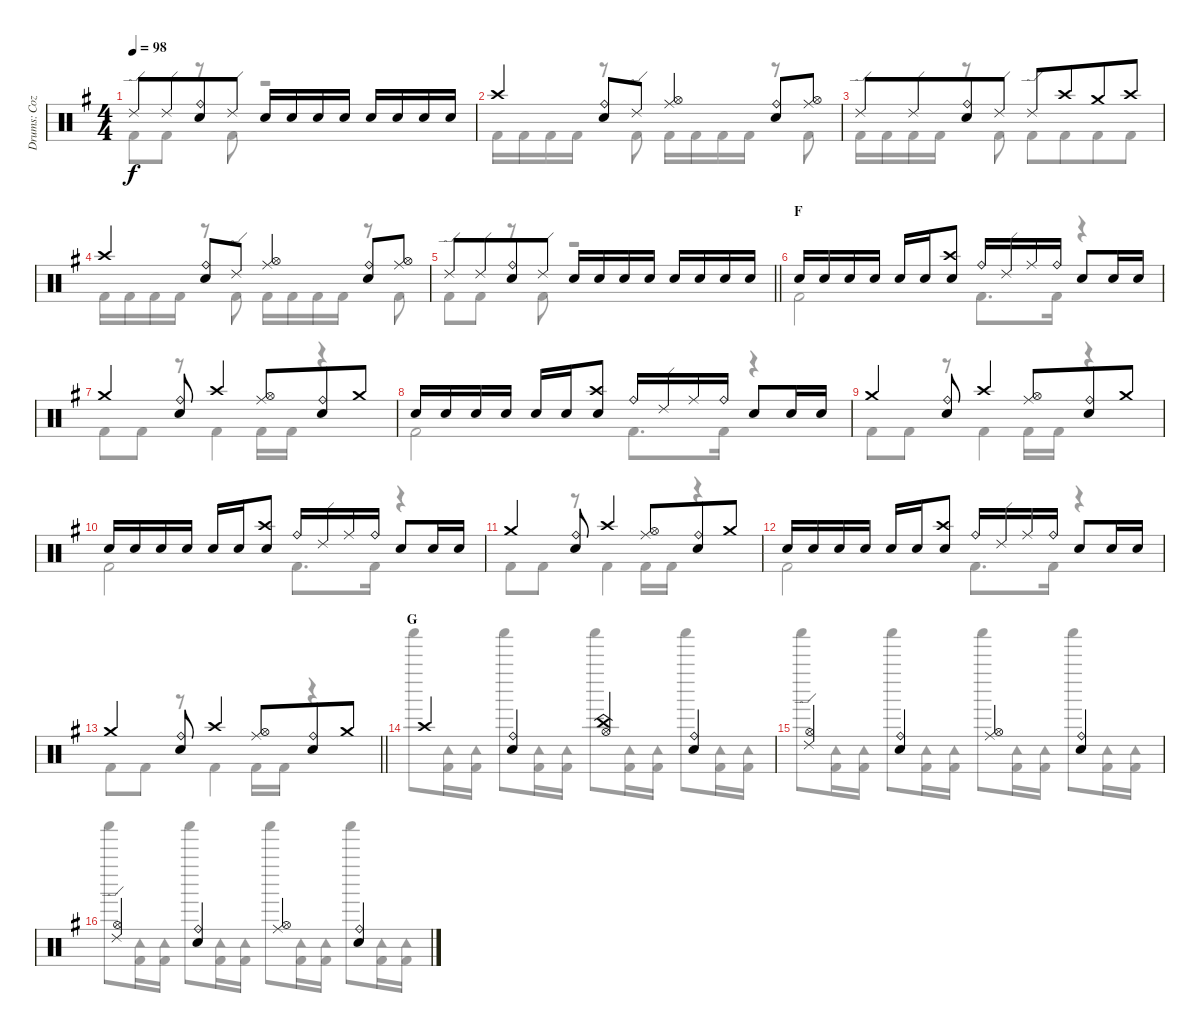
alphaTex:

\track ("Drums: Cozy" "Drums: Coz") {instrument percussion}
\staff {score}
\articulation defaults
\voice
\ts (4 4)
\tempo 98
\clef neutral
\ks g "Ride (edge) 2".8{dy f} "Ride (edge) 2".8{beam merge}
("Ride (bell)" "Snare (hit) 2").8 "Ride (edge) 2".8 "Snare (hit) 2".16 "Snare (hit) 2".16{beam merge} "Snare (hit) 2".16 "Snare (hit) 2".16 "Snare (hit) 2".16 "Snare (hit) 2".16{beam merge} "Snare (hit) 2".16 "Snare (hit) 2".16 |
"Crash high (hit)".4 ("Ride (bell)" "Snare (hit) 2").8 "Ride (edge) 2".8 ("Ride (middle)" "Hi-Hat (open)").4 ("Ride (bell)" "Snare (hit) 2").8 ("Ride (middle)" "Hi-Hat (open)").8 |
"Ride (edge) 2".8 "Ride (edge) 2".8{beam merge} ("Ride (bell)" "Snare (hit) 2").8 "Ride (edge) 2".8 "Ride (edge) 2".8 "Crash high (hit)".8{beam merge} "Crash medium (hit)".8 "Crash high (hit)".8 |
"Crash high (hit)".4 ("Ride (bell)" "Snare (hit) 2").8 "Ride (edge) 2".8 ("Ride (middle)" "Hi-Hat (open)").4 ("Ride (bell)" "Snare (hit) 2").8 ("Ride (middle)" "Hi-Hat (open)").8 |
\barLineRight lightlight "Ride (edge) 2".8 "Ride (edge) 2".8{beam merge}
("Ride (bell)" "Snare (hit) 2").8 "Ride (edge) 2".8 "Snare (hit) 2".16 "Snare (hit) 2".16{beam merge} "Snare (hit) 2".16 "Snare (hit) 2".16 "Snare (hit) 2".16 "Snare (hit) 2".16{beam merge} "Snare (hit) 2".16 "Snare (hit) 2".16 |
\section ("" "F")
"Snare (hit) 2".16 "Snare (hit) 2".16 "Snare (hit) 2".16 "Snare (hit) 2".16 "Snare (hit) 2".16 "Snare (hit) 2".16 ("Crash high (hit)" "Snare (hit) 2").8 "Ride (bell)".16 "Ride (edge) 2".16 "Ride (middle)".16 "Ride (bell)".16 "Snare (hit) 2".8 "Snare (hit) 2".16 "Snare (hit) 2".16 |
"Crash medium (hit)".4 ("Ride (bell)" "Snare (hit) 2").8 "Crash high (hit)".4 ("Ride (middle)" "Hi-Hat (open)").8{beam merge} ("Ride (bell)" "Snare (hit) 2").8 "Crash medium (hit)".8 |
"Snare (hit) 2".16 "Snare (hit) 2".16 "Snare (hit) 2".16 "Snare (hit) 2".16 "Snare (hit) 2".16 "Snare (hit) 2".16 ("Crash high (hit)" "Snare (hit) 2").8 "Ride (bell)".16 "Ride (edge) 2".16 "Ride (middle)".16 "Ride (bell)".16 "Snare (hit) 2".8 "Snare (hit) 2".16 "Snare (hit) 2".16 |
"Crash medium (hit)".4 ("Ride (bell)" "Snare (hit) 2").8 "Crash high (hit)".4 ("Ride (middle)" "Hi-Hat (open)").8{beam merge} ("Ride (bell)" "Snare (hit) 2").8 "Crash medium (hit)".8 |
"Snare (hit) 2".16 "Snare (hit) 2".16 "Snare (hit) 2".16 "Snare (hit) 2".16 "Snare (hit) 2".16 "Snare (hit) 2".16 ("Crash high (hit)" "Snare (hit) 2").8 "Ride (bell)".16 "Ride (edge) 2".16 "Ride (middle)".16 "Ride (bell)".16 "Snare (hit) 2".8 "Snare (hit) 2".16 "Snare (hit) 2".16 |
"Crash medium (hit)".4 ("Ride (bell)" "Snare (hit) 2").8 "Crash high (hit)".4 ("Ride (middle)" "Hi-Hat (open)").8{beam merge} ("Ride (bell)" "Snare (hit) 2").8 "Crash medium (hit)".8 |
"Snare (hit) 2".16 "Snare (hit) 2".16 "Snare (hit) 2".16 "Snare (hit) 2".16 "Snare (hit) 2".16 "Snare (hit) 2".16 ("Crash high (hit)" "Snare (hit) 2").8 "Ride (bell)".16 "Ride (edge) 2".16 "Ride (middle)".16 "Ride (bell)".16 "Snare (hit) 2".8 "Snare (hit) 2".16 "Snare (hit) 2".16 |
\barLineRight lightlight "Crash medium (hit)".4
("Ride (bell)" "Snare (hit) 2").8 "Crash high (hit)".4 ("Ride (middle)" "Hi-Hat (open)").8{beam merge} ("Ride (bell)" "Snare (hit) 2").8 "Crash medium (hit)".8 |
\section ("" "G")
"Crash high (hit)".4 ("Ride (bell)" "Snare (hit) 2").4 ("China (hit)" "Hi-Hat (open)").4 ("Ride (bell)" "Snare (hit) 2").4 |
("Ride (edge) 2" "Hi-Hat (open)").4 ("Ride (bell)" "Snare (hit) 2").4 ("Ride (middle)" "Hi-Hat (open)").4 ("Ride (bell)" "Snare (hit) 2").4 |
("Ride (edge) 2" "Hi-Hat (open)").4 ("Ride (bell)" "Snare (hit) 2").4 ("Ride (middle)" "Hi-Hat (open)").4 ("Ride (bell)" "Snare (hit) 2").4
\voice
\clef neutral
\ottava regular
\simile none
\ks g "Kick (hit) 2".8{dy f} "Kick (hit) 2".8
r.8 "Kick (hit) 2".8 r.2 |
"Kick (hit) 2".16 "Kick (hit) 2".16 "Kick (hit) 2".16 "Kick (hit) 2".16 r.8 "Kick (hit) 2".8 "Kick (hit) 2".16 "Kick (hit) 2".16 "Kick (hit) 2".16 "Kick (hit) 2".16 r.8 "Kick (hit) 2".8 |
"Kick (hit) 2".16 "Kick (hit) 2".16 "Kick (hit) 2".16 "Kick (hit) 2".16 r.8{beam merge} "Kick (hit) 2".8 "Kick (hit) 2".8 "Kick (hit) 2".8{beam merge} "Kick (hit) 2".8 "Kick (hit) 2".8 |
"Kick (hit) 2".16 "Kick (hit) 2".16 "Kick (hit) 2".16 "Kick (hit) 2".16 r.8 "Kick (hit) 2".8 "Kick (hit) 2".16 "Kick (hit) 2".16 "Kick (hit) 2".16 "Kick (hit) 2".16 r.8 "Kick (hit) 2".8 |
\barLineRight lightlight "Kick (hit) 2".8 "Kick (hit) 2".8
r.8 "Kick (hit) 2".8 r.2 |
"Kick (hit) 2".2 "Kick (hit) 2".8{d} "Kick (hit) 2".16 r.4 |
"Kick (hit) 2".8 "Kick (hit) 2".8 r.8 "Kick (hit) 2".4 "Kick (hit) 2".16 "Kick (hit) 2".16 r.4 |
"Kick (hit) 2".2 "Kick (hit) 2".8{d} "Kick (hit) 2".16 r.4 |
"Kick (hit) 2".8 "Kick (hit) 2".8 r.8 "Kick (hit) 2".4 "Kick (hit) 2".16 "Kick (hit) 2".16 r.4 |
"Kick (hit) 2".2 "Kick (hit) 2".8{d} "Kick (hit) 2".16 r.4 |
"Kick (hit) 2".8 "Kick (hit) 2".8 r.8 "Kick (hit) 2".4 "Kick (hit) 2".16 "Kick (hit) 2".16 r.4 |
"Kick (hit) 2".2 "Kick (hit) 2".8{d} "Kick (hit) 2".16 r.4 |
\barLineRight lightlight "Kick (hit) 2".8 "Kick (hit) 2".8
r.8 "Kick (hit) 2".4 "Kick (hit) 2".16 "Kick (hit) 2".16 r.4 |
"Shaker (hit)".8 ("Tambourine (hit)" "Kick (hit) 2").16 ("Tambourine (hit)" "Kick (hit) 2").16 "Shaker (hit)".8 ("Tambourine (hit)" "Kick (hit) 2").16 ("Tambourine (hit)" "Kick (hit) 2").16 "Shaker (hit)".8 ("Tambourine (hit)" "Kick (hit) 2").16 ("Tambourine (hit)" "Kick (hit) 2").16 "Shaker (hit)".8 ("Tambourine (hit)" "Kick (hit) 2").16 ("Tambourine (hit)" "Kick (hit) 2").16 |
"Shaker (hit)".8 ("Tambourine (hit)" "Kick (hit) 2").16 ("Tambourine (hit)" "Kick (hit) 2").16 "Shaker (hit)".8 ("Tambourine (hit)" "Kick (hit) 2").16 ("Tambourine (hit)" "Kick (hit) 2").16 "Shaker (hit)".8 ("Tambourine (hit)" "Kick (hit) 2").16 ("Tambourine (hit)" "Kick (hit) 2").16 "Shaker (hit)".8 ("Tambourine (hit)" "Kick (hit) 2").16 ("Tambourine (hit)" "Kick (hit) 2").16 |
"Shaker (hit)".8 ("Tambourine (hit)" "Kick (hit) 2").16 ("Tambourine (hit)" "Kick (hit) 2").16 "Shaker (hit)".8 ("Tambourine (hit)" "Kick (hit) 2").16 ("Tambourine (hit)" "Kick (hit) 2").16 "Shaker (hit)".8 ("Tambourine (hit)" "Kick (hit) 2").16 ("Tambourine (hit)" "Kick (hit) 2").16 "Shaker (hit)".8 ("Tambourine (hit)" "Kick (hit) 2").16 ("Tambourine (hit)" "Kick (hit) 2").16
